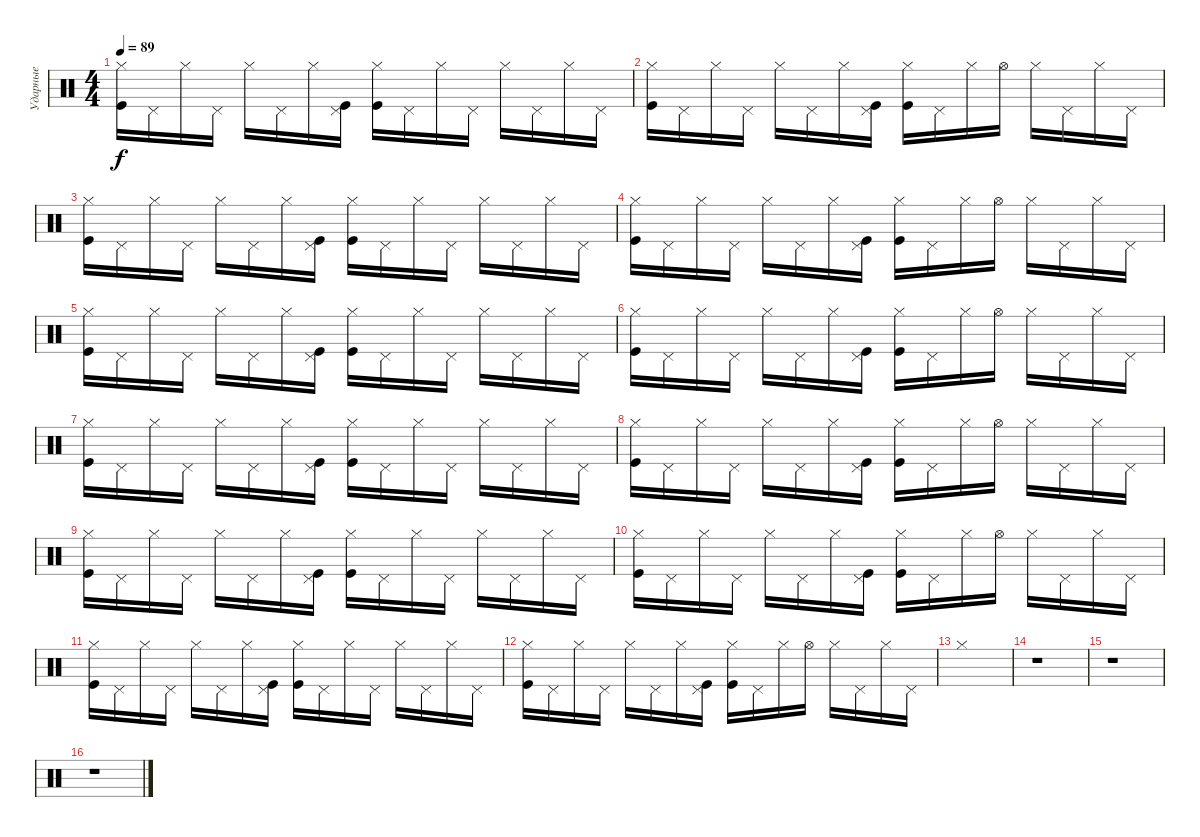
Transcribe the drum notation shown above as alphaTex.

\track ("Ударные" "Ударные") {instrument percussion}
\staff {score}
\articulation defaults
\ts (4 4)
\tempo 89
\clef neutral
\ks c
("Hi-Hat (closed)" "Kick (hit)").16{dy f} "Pedal Hi-Hat (hit)".16 "Hi-Hat (closed)".16 "Pedal Hi-Hat (hit)".16 "Hi-Hat (closed)".16 "Pedal Hi-Hat (hit)".16 "Hi-Hat (closed)".16 ("Kick (hit)" "Pedal Hi-Hat (hit)").16 ("Hi-Hat (closed)" "Kick (hit)").16 "Pedal Hi-Hat (hit)".16 "Hi-Hat (closed)".16 "Pedal Hi-Hat (hit)".16 "Hi-Hat (closed)".16 "Pedal Hi-Hat (hit)".16 "Hi-Hat (closed)".16 "Pedal Hi-Hat (hit)".16 |
("Hi-Hat (closed)" "Kick (hit)").16 "Pedal Hi-Hat (hit)".16 "Hi-Hat (closed)".16 "Pedal Hi-Hat (hit)".16 "Hi-Hat (closed)".16 "Pedal Hi-Hat (hit)".16 "Hi-Hat (closed)".16 ("Kick (hit)" "Pedal Hi-Hat (hit)").16 ("Hi-Hat (closed)" "Kick (hit)").16 "Pedal Hi-Hat (hit)".16 "Hi-Hat (closed)".16 "Hi-Hat (open)".16 "Hi-Hat (closed)".16 "Pedal Hi-Hat (hit)".16 "Hi-Hat (closed)".16 "Pedal Hi-Hat (hit)".16 |
("Hi-Hat (closed)" "Kick (hit)").16 "Pedal Hi-Hat (hit)".16 "Hi-Hat (closed)".16 "Pedal Hi-Hat (hit)".16 "Hi-Hat (closed)".16 "Pedal Hi-Hat (hit)".16 "Hi-Hat (closed)".16 ("Kick (hit)" "Pedal Hi-Hat (hit)").16 ("Hi-Hat (closed)" "Kick (hit)").16 "Pedal Hi-Hat (hit)".16 "Hi-Hat (closed)".16 "Pedal Hi-Hat (hit)".16 "Hi-Hat (closed)".16 "Pedal Hi-Hat (hit)".16 "Hi-Hat (closed)".16 "Pedal Hi-Hat (hit)".16 |
("Hi-Hat (closed)" "Kick (hit)").16 "Pedal Hi-Hat (hit)".16 "Hi-Hat (closed)".16 "Pedal Hi-Hat (hit)".16 "Hi-Hat (closed)".16 "Pedal Hi-Hat (hit)".16 "Hi-Hat (closed)".16 ("Kick (hit)" "Pedal Hi-Hat (hit)").16 ("Hi-Hat (closed)" "Kick (hit)").16 "Pedal Hi-Hat (hit)".16 "Hi-Hat (closed)".16 "Hi-Hat (open)".16 "Hi-Hat (closed)".16 "Pedal Hi-Hat (hit)".16 "Hi-Hat (closed)".16 "Pedal Hi-Hat (hit)".16 |
("Hi-Hat (closed)" "Kick (hit)").16 "Pedal Hi-Hat (hit)".16 "Hi-Hat (closed)".16 "Pedal Hi-Hat (hit)".16 "Hi-Hat (closed)".16 "Pedal Hi-Hat (hit)".16 "Hi-Hat (closed)".16 ("Kick (hit)" "Pedal Hi-Hat (hit)").16 ("Hi-Hat (closed)" "Kick (hit)").16 "Pedal Hi-Hat (hit)".16 "Hi-Hat (closed)".16 "Pedal Hi-Hat (hit)".16 "Hi-Hat (closed)".16 "Pedal Hi-Hat (hit)".16 "Hi-Hat (closed)".16 "Pedal Hi-Hat (hit)".16 |
("Hi-Hat (closed)" "Kick (hit)").16 "Pedal Hi-Hat (hit)".16 "Hi-Hat (closed)".16 "Pedal Hi-Hat (hit)".16 "Hi-Hat (closed)".16 "Pedal Hi-Hat (hit)".16 "Hi-Hat (closed)".16 ("Kick (hit)" "Pedal Hi-Hat (hit)").16 ("Hi-Hat (closed)" "Kick (hit)").16 "Pedal Hi-Hat (hit)".16 "Hi-Hat (closed)".16 "Hi-Hat (open)".16 "Hi-Hat (closed)".16 "Pedal Hi-Hat (hit)".16 "Hi-Hat (closed)".16 "Pedal Hi-Hat (hit)".16 |
("Hi-Hat (closed)" "Kick (hit)").16 "Pedal Hi-Hat (hit)".16 "Hi-Hat (closed)".16 "Pedal Hi-Hat (hit)".16 "Hi-Hat (closed)".16 "Pedal Hi-Hat (hit)".16 "Hi-Hat (closed)".16 ("Kick (hit)" "Pedal Hi-Hat (hit)").16 ("Hi-Hat (closed)" "Kick (hit)").16 "Pedal Hi-Hat (hit)".16 "Hi-Hat (closed)".16 "Pedal Hi-Hat (hit)".16 "Hi-Hat (closed)".16 "Pedal Hi-Hat (hit)".16 "Hi-Hat (closed)".16 "Pedal Hi-Hat (hit)".16 |
("Hi-Hat (closed)" "Kick (hit)").16 "Pedal Hi-Hat (hit)".16 "Hi-Hat (closed)".16 "Pedal Hi-Hat (hit)".16 "Hi-Hat (closed)".16 "Pedal Hi-Hat (hit)".16 "Hi-Hat (closed)".16 ("Kick (hit)" "Pedal Hi-Hat (hit)").16 ("Hi-Hat (closed)" "Kick (hit)").16 "Pedal Hi-Hat (hit)".16 "Hi-Hat (closed)".16 "Hi-Hat (open)".16 "Hi-Hat (closed)".16 "Pedal Hi-Hat (hit)".16 "Hi-Hat (closed)".16 "Pedal Hi-Hat (hit)".16 |
("Hi-Hat (closed)" "Kick (hit)").16 "Pedal Hi-Hat (hit)".16 "Hi-Hat (closed)".16 "Pedal Hi-Hat (hit)".16 "Hi-Hat (closed)".16 "Pedal Hi-Hat (hit)".16 "Hi-Hat (closed)".16 ("Kick (hit)" "Pedal Hi-Hat (hit)").16 ("Hi-Hat (closed)" "Kick (hit)").16 "Pedal Hi-Hat (hit)".16 "Hi-Hat (closed)".16 "Pedal Hi-Hat (hit)".16 "Hi-Hat (closed)".16 "Pedal Hi-Hat (hit)".16 "Hi-Hat (closed)".16 "Pedal Hi-Hat (hit)".16 |
("Hi-Hat (closed)" "Kick (hit)").16 "Pedal Hi-Hat (hit)".16 "Hi-Hat (closed)".16 "Pedal Hi-Hat (hit)".16 "Hi-Hat (closed)".16 "Pedal Hi-Hat (hit)".16 "Hi-Hat (closed)".16 ("Kick (hit)" "Pedal Hi-Hat (hit)").16 ("Hi-Hat (closed)" "Kick (hit)").16 "Pedal Hi-Hat (hit)".16 "Hi-Hat (closed)".16 "Hi-Hat (open)".16 "Hi-Hat (closed)".16 "Pedal Hi-Hat (hit)".16 "Hi-Hat (closed)".16 "Pedal Hi-Hat (hit)".16 |
("Hi-Hat (closed)" "Kick (hit)").16 "Pedal Hi-Hat (hit)".16 "Hi-Hat (closed)".16 "Pedal Hi-Hat (hit)".16 "Hi-Hat (closed)".16 "Pedal Hi-Hat (hit)".16 "Hi-Hat (closed)".16 ("Kick (hit)" "Pedal Hi-Hat (hit)").16 ("Hi-Hat (closed)" "Kick (hit)").16 "Pedal Hi-Hat (hit)".16 "Hi-Hat (closed)".16 "Pedal Hi-Hat (hit)".16 "Hi-Hat (closed)".16 "Pedal Hi-Hat (hit)".16 "Hi-Hat (closed)".16 "Pedal Hi-Hat (hit)".16 |
("Hi-Hat (closed)" "Kick (hit)").16 "Pedal Hi-Hat (hit)".16 "Hi-Hat (closed)".16 "Pedal Hi-Hat (hit)".16 "Hi-Hat (closed)".16 "Pedal Hi-Hat (hit)".16 "Hi-Hat (closed)".16 ("Kick (hit)" "Pedal Hi-Hat (hit)").16 ("Hi-Hat (closed)" "Kick (hit)").16 "Pedal Hi-Hat (hit)".16 "Hi-Hat (closed)".16 "Hi-Hat (open)".16 "Hi-Hat (closed)".16 "Pedal Hi-Hat (hit)".16 "Hi-Hat (closed)".16 "Pedal Hi-Hat (hit)".16 |
"Hi-Hat (closed)".1 |
r.1 |
r.1 |
r.1
